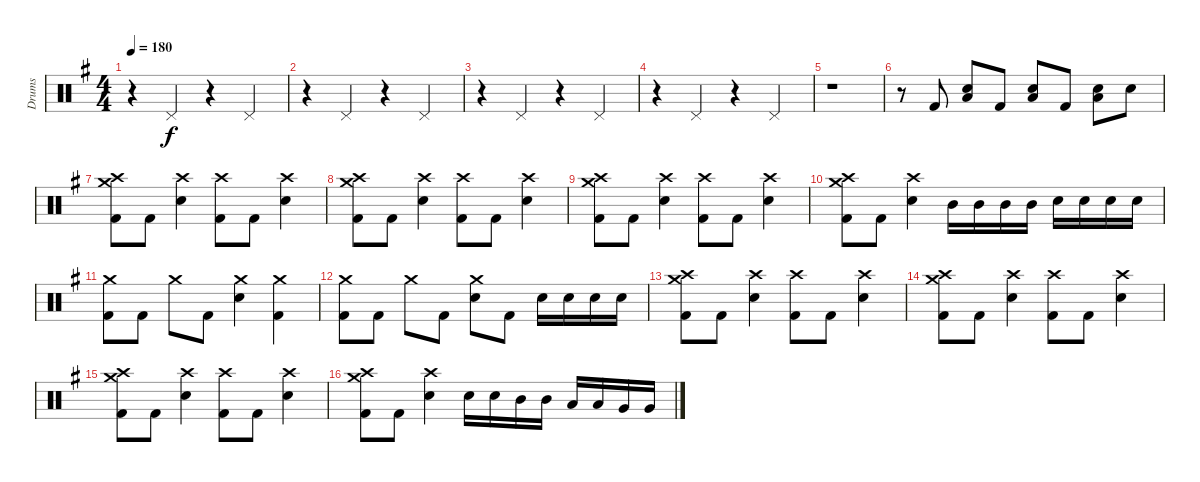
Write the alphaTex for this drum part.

\track ("Drums" "Drums") {instrument percussion}
\staff {score}
\articulation defaults
\ts (4 4)
\tempo 180
\clef neutral
\ks g
r.4{dy f} "Pedal Hi-Hat (hit)".4 r.4 "Pedal Hi-Hat (hit)".4 |
r.4 "Pedal Hi-Hat (hit)".4 r.4 "Pedal Hi-Hat (hit)".4 |
r.4 "Pedal Hi-Hat (hit)".4 r.4 "Pedal Hi-Hat (hit)".4 |
r.4 "Pedal Hi-Hat (hit)".4 r.4 "Pedal Hi-Hat (hit)".4 |
r.1 |
r.8 "Kick (hit) 2".8 ("Low Tom (hit)" "Electric Snare (hit)").8 "Kick (hit) 2".8 ("Low Tom (hit)" "Electric Snare (hit)").8 "Kick (hit) 2".8 ("Low Tom (hit)" "Electric Snare (hit)").8 "Electric Snare (hit)".8 |
("Crash medium (hit)" "Crash high (hit)" "Kick (hit) 2").8 "Kick (hit) 2".8 ("Crash high (hit)" "Electric Snare (hit)").4 ("Crash high (hit)" "Kick (hit) 2").8 "Kick (hit) 2".8 ("Crash high (hit)" "Electric Snare (hit)").4 |
("Crash medium (hit)" "Crash high (hit)" "Kick (hit) 2").8 "Kick (hit) 2".8 ("Crash high (hit)" "Electric Snare (hit)").4 ("Crash high (hit)" "Kick (hit) 2").8 "Kick (hit) 2".8 ("Crash high (hit)" "Electric Snare (hit)").4 |
("Crash medium (hit)" "Crash high (hit)" "Kick (hit) 2").8 "Kick (hit) 2".8 ("Crash high (hit)" "Electric Snare (hit)").4 ("Crash high (hit)" "Kick (hit) 2").8 "Kick (hit) 2".8 ("Crash high (hit)" "Electric Snare (hit)").4 |
("Crash medium (hit)" "Crash high (hit)" "Kick (hit) 2").8 "Kick (hit) 2".8 ("Crash high (hit)" "Electric Snare (hit)").4 "Mid Tom (hit)".16 "Mid Tom (hit)".16 "Mid Tom (hit)".16 "Mid Tom (hit)".16 "Electric Snare (hit)".16 "Electric Snare (hit)".16 "Electric Snare (hit)".16 "Electric Snare (hit)".16 |
("Crash medium (hit)" "Kick (hit) 2").8 "Kick (hit) 2".8 "Crash medium (hit)".8 "Kick (hit) 2".8 ("Crash medium (hit)" "Electric Snare (hit)").4 ("Crash medium (hit)" "Kick (hit) 2").4 |
("Crash medium (hit)" "Kick (hit) 2").8 "Kick (hit) 2".8 "Crash medium (hit)".8 "Kick (hit) 2".8 ("Crash medium (hit)" "Electric Snare (hit)").8 "Kick (hit) 2".8 "Electric Snare (hit)".16 "Electric Snare (hit)".16 "Electric Snare (hit)".16 "Electric Snare (hit)".16 |
("Crash medium (hit)" "Crash high (hit)" "Kick (hit) 2").8 "Kick (hit) 2".8 ("Crash high (hit)" "Electric Snare (hit)").4 ("Crash high (hit)" "Kick (hit) 2").8 "Kick (hit) 2".8 ("Crash high (hit)" "Electric Snare (hit)").4 |
("Crash medium (hit)" "Crash high (hit)" "Kick (hit) 2").8 "Kick (hit) 2".8 ("Crash high (hit)" "Electric Snare (hit)").4 ("Crash high (hit)" "Kick (hit) 2").8 "Kick (hit) 2".8 ("Crash high (hit)" "Electric Snare (hit)").4 |
("Crash medium (hit)" "Crash high (hit)" "Kick (hit) 2").8 "Kick (hit) 2".8 ("Crash high (hit)" "Electric Snare (hit)").4 ("Crash high (hit)" "Kick (hit) 2").8 "Kick (hit) 2".8 ("Crash high (hit)" "Electric Snare (hit)").4 |
("Crash medium (hit)" "Crash high (hit)" "Kick (hit) 2").8 "Kick (hit) 2".8 ("Crash high (hit)" "Electric Snare (hit)").4 "Electric Snare (hit)".16 "Electric Snare (hit)".16 "Mid Tom (hit)".16 "Mid Tom (hit)".16 "Low Tom (hit)".16 "Low Tom (hit)".16 "Very Low Tom (hit)".16 "Very Low Tom (hit)".16
